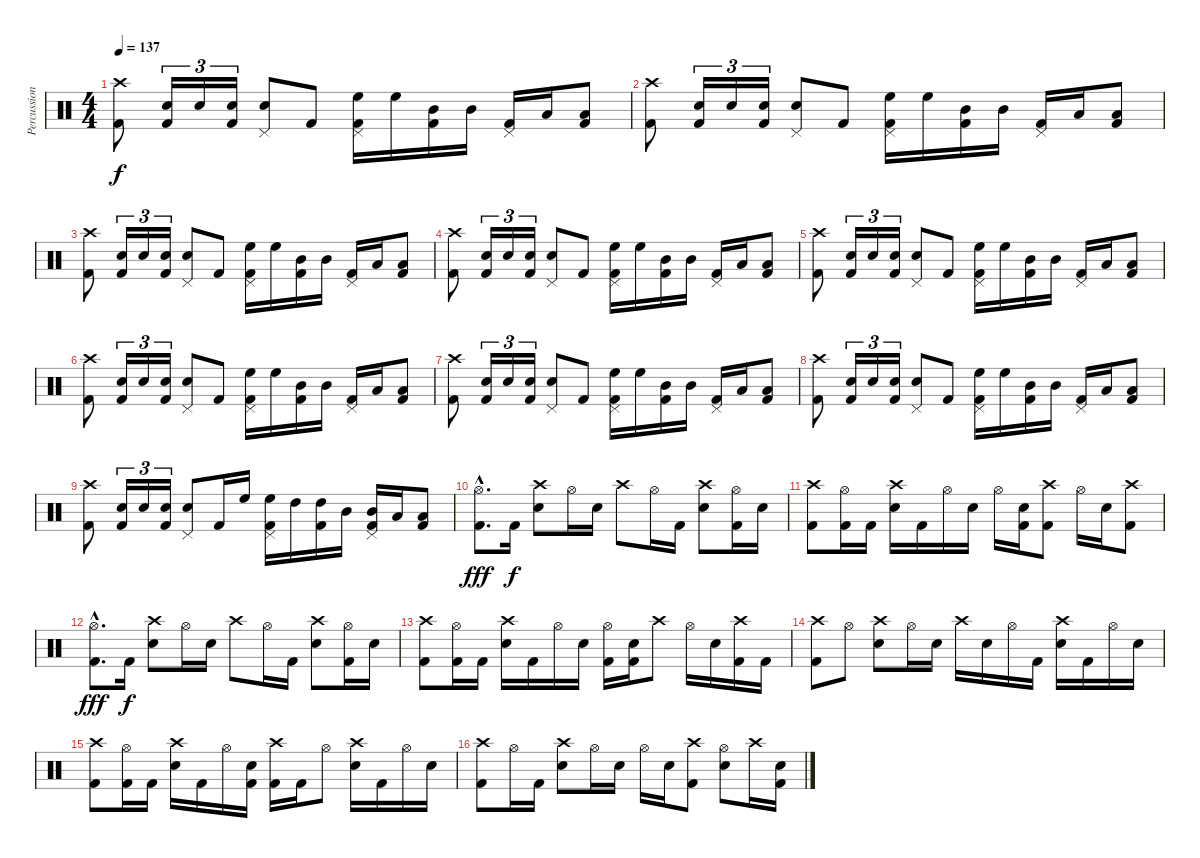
\track ("Percussion" "Percussion") {instrument percussion}
\staff {score}
\articulation defaults
\ts (4 4)
\tempo 137
\clef neutral
\ks c
("Kick (hit) 2" "Crash high (hit)").8{dy f} ("Kick (hit) 2" "Snare (hit) 2").16{tu (3 2)} "Snare (hit) 2".16{tu (3 2)} ("Kick (hit) 2" "Snare (hit) 2").16{tu (3 2)} ("Snare (hit) 2" "Pedal Hi-Hat (hit)").8 "Kick (hit) 2".8 ("Kick (hit) 2" "High Floor Tom (hit)" "Pedal Hi-Hat (hit)").16 "High Floor Tom (hit)".16 ("Kick (hit) 2" "Mid Tom (hit)").16 "Mid Tom (hit)".16 ("Kick (hit) 2" "Pedal Hi-Hat (hit)").16 "Low Tom (hit)".16 ("Kick (hit) 2" "Low Tom (hit)").8 |
("Kick (hit) 2" "Crash high (hit)").8 ("Kick (hit) 2" "Snare (hit) 2").16{tu (3 2)} "Snare (hit) 2".16{tu (3 2)} ("Kick (hit) 2" "Snare (hit) 2").16{tu (3 2)} ("Snare (hit) 2" "Pedal Hi-Hat (hit)").8 "Kick (hit) 2".8 ("Kick (hit) 2" "High Floor Tom (hit)" "Pedal Hi-Hat (hit)").16 "High Floor Tom (hit)".16 ("Kick (hit) 2" "Mid Tom (hit)").16 "Mid Tom (hit)".16 ("Kick (hit) 2" "Pedal Hi-Hat (hit)").16 "Low Tom (hit)".16 ("Kick (hit) 2" "Low Tom (hit)").8 |
("Kick (hit) 2" "Crash high (hit)").8 ("Kick (hit) 2" "Snare (hit) 2").16{tu (3 2)} "Snare (hit) 2".16{tu (3 2)} ("Kick (hit) 2" "Snare (hit) 2").16{tu (3 2)} ("Snare (hit) 2" "Pedal Hi-Hat (hit)").8 "Kick (hit) 2".8 ("Kick (hit) 2" "High Floor Tom (hit)" "Pedal Hi-Hat (hit)").16 "High Floor Tom (hit)".16 ("Kick (hit) 2" "Mid Tom (hit)").16 "Mid Tom (hit)".16 ("Kick (hit) 2" "Pedal Hi-Hat (hit)").16 "Low Tom (hit)".16 ("Kick (hit) 2" "Low Tom (hit)").8 |
("Kick (hit) 2" "Crash high (hit)").8 ("Kick (hit) 2" "Snare (hit) 2").16{tu (3 2)} "Snare (hit) 2".16{tu (3 2)} ("Kick (hit) 2" "Snare (hit) 2").16{tu (3 2)} ("Snare (hit) 2" "Pedal Hi-Hat (hit)").8 "Kick (hit) 2".8 ("Kick (hit) 2" "High Floor Tom (hit)" "Pedal Hi-Hat (hit)").16 "High Floor Tom (hit)".16 ("Kick (hit) 2" "Mid Tom (hit)").16 "Mid Tom (hit)".16 ("Kick (hit) 2" "Pedal Hi-Hat (hit)").16 "Low Tom (hit)".16 ("Kick (hit) 2" "Low Tom (hit)").8 |
("Kick (hit) 2" "Crash high (hit)").8 ("Kick (hit) 2" "Snare (hit) 2").16{tu (3 2)} "Snare (hit) 2".16{tu (3 2)} ("Kick (hit) 2" "Snare (hit) 2").16{tu (3 2)} ("Snare (hit) 2" "Pedal Hi-Hat (hit)").8 "Kick (hit) 2".8 ("Kick (hit) 2" "High Floor Tom (hit)" "Pedal Hi-Hat (hit)").16 "High Floor Tom (hit)".16 ("Kick (hit) 2" "Mid Tom (hit)").16 "Mid Tom (hit)".16 ("Kick (hit) 2" "Pedal Hi-Hat (hit)").16 "Low Tom (hit)".16 ("Kick (hit) 2" "Low Tom (hit)").8 |
("Kick (hit) 2" "Crash high (hit)").8 ("Kick (hit) 2" "Snare (hit) 2").16{tu (3 2)} "Snare (hit) 2".16{tu (3 2)} ("Kick (hit) 2" "Snare (hit) 2").16{tu (3 2)} ("Snare (hit) 2" "Pedal Hi-Hat (hit)").8 "Kick (hit) 2".8 ("Kick (hit) 2" "High Floor Tom (hit)" "Pedal Hi-Hat (hit)").16 "High Floor Tom (hit)".16 ("Kick (hit) 2" "Mid Tom (hit)").16 "Mid Tom (hit)".16 ("Kick (hit) 2" "Pedal Hi-Hat (hit)").16 "Low Tom (hit)".16 ("Kick (hit) 2" "Low Tom (hit)").8 |
("Kick (hit) 2" "Crash high (hit)").8 ("Kick (hit) 2" "Snare (hit) 2").16{tu (3 2)} "Snare (hit) 2".16{tu (3 2)} ("Kick (hit) 2" "Snare (hit) 2").16{tu (3 2)} ("Snare (hit) 2" "Pedal Hi-Hat (hit)").8 "Kick (hit) 2".8 ("Kick (hit) 2" "High Floor Tom (hit)" "Pedal Hi-Hat (hit)").16 "High Floor Tom (hit)".16 ("Kick (hit) 2" "Mid Tom (hit)").16 "Mid Tom (hit)".16 ("Kick (hit) 2" "Pedal Hi-Hat (hit)").16 "Low Tom (hit)".16 ("Kick (hit) 2" "Low Tom (hit)").8 |
("Kick (hit) 2" "Crash high (hit)").8 ("Kick (hit) 2" "Snare (hit) 2").16{tu (3 2)} "Snare (hit) 2".16{tu (3 2)} ("Kick (hit) 2" "Snare (hit) 2").16{tu (3 2)} ("Snare (hit) 2" "Pedal Hi-Hat (hit)").8 "Kick (hit) 2".8 ("Kick (hit) 2" "High Floor Tom (hit)" "Pedal Hi-Hat (hit)").16 "High Floor Tom (hit)".16 ("Kick (hit) 2" "Mid Tom (hit)").16 "Mid Tom (hit)".16 ("Kick (hit) 2" "Pedal Hi-Hat (hit)").16 "Low Tom (hit)".16 ("Kick (hit) 2" "Low Tom (hit)").8 |
("Kick (hit) 2" "Crash high (hit)").8 ("Kick (hit) 2" "Snare (hit) 2").16{tu (3 2)} "Snare (hit) 2".16{tu (3 2)} ("Kick (hit) 2" "Snare (hit) 2").16{tu (3 2)} ("Snare (hit) 2" "Pedal Hi-Hat (hit)").8 "Kick (hit) 2".16 "High Floor Tom (hit)".16 ("Kick (hit) 2" "High Floor Tom (hit)" "Pedal Hi-Hat (hit)").16 "High Tom (hit)".16 ("Kick (hit) 2" "High Tom (hit)").16 "Mid Tom (hit)".16 ("Kick (hit) 2" "Mid Tom (hit)" "Pedal Hi-Hat (hit)").16 "Low Tom (hit)".16 ("Kick (hit) 2" "Low Tom (hit)").8 |
("Kick (hit) 2"{hac} "Hi-Hat (open)"{hac}).8{d dy fff} "Kick (hit) 2".16{dy f} ("Snare (hit) 2" "Crash high (hit)").8 "Hi-Hat (open)".16 "Snare (hit) 2".16 "Crash high (hit)".8 "Hi-Hat (open)".16 "Kick (hit) 2".16 ("Snare (hit) 2" "Crash high (hit)").8 ("Kick (hit) 2" "Hi-Hat (open)").16 "Snare (hit) 2".16 |
("Kick (hit) 2" "Crash high (hit)").8 ("Kick (hit) 2" "Hi-Hat (open)").16 "Kick (hit) 2".16 ("Snare (hit) 2" "Crash high (hit)").16 "Kick (hit) 2".16 "Hi-Hat (open)".16 "Snare (hit) 2".16 "Hi-Hat (open)".16 ("Kick (hit) 2" "Snare (hit) 2").16 ("Kick (hit) 2" "Crash high (hit)").8 "Hi-Hat (open)".16 "Snare (hit) 2".16 ("Kick (hit) 2" "Crash high (hit)").8 |
("Kick (hit) 2"{hac} "Hi-Hat (open)"{hac}).8{d dy fff} "Kick (hit) 2".16{dy f} ("Snare (hit) 2" "Crash high (hit)").8 "Hi-Hat (open)".16 "Snare (hit) 2".16 "Crash high (hit)".8 "Hi-Hat (open)".16 "Kick (hit) 2".16 ("Snare (hit) 2" "Crash high (hit)").8 ("Kick (hit) 2" "Hi-Hat (open)").16 "Snare (hit) 2".16 |
("Kick (hit) 2" "Crash high (hit)").8 ("Kick (hit) 2" "Hi-Hat (open)").16 "Kick (hit) 2".16 ("Snare (hit) 2" "Crash high (hit)").16 "Kick (hit) 2".16 "Hi-Hat (open)".16 "Snare (hit) 2".16 ("Kick (hit) 2" "Hi-Hat (open)").16 ("Kick (hit) 2" "Snare (hit) 2").16 "Crash high (hit)".8 "Hi-Hat (open)".16 "Snare (hit) 2".16 ("Kick (hit) 2" "Crash high (hit)").16 "Kick (hit) 2".16 |
("Kick (hit) 2" "Crash high (hit)").8 "Hi-Hat (open)".8 ("Snare (hit) 2" "Crash high (hit)").8 "Hi-Hat (open)".16 "Snare (hit) 2".16 "Crash high (hit)".16 "Snare (hit) 2".16 "Hi-Hat (open)".16 "Kick (hit) 2".16 ("Snare (hit) 2" "Crash high (hit)").16 "Kick (hit) 2".16 "Hi-Hat (open)".16 "Snare (hit) 2".16 |
("Kick (hit) 2" "Crash high (hit)").8 ("Kick (hit) 2" "Hi-Hat (open)").16 "Kick (hit) 2".16 ("Snare (hit) 2" "Crash high (hit)").16 "Kick (hit) 2".16 "Hi-Hat (open)".16 ("Kick (hit) 2" "Snare (hit) 2").16 ("Kick (hit) 2" "Crash high (hit)").16 "Kick (hit) 2".16 "Hi-Hat (open)".8 ("Snare (hit) 2" "Crash high (hit)").16 "Kick (hit) 2".16 "Hi-Hat (open)".16 "Snare (hit) 2".16 |
("Kick (hit) 2" "Crash high (hit)").8 "Hi-Hat (open)".16 "Kick (hit) 2".16 ("Snare (hit) 2" "Crash high (hit)").8 "Hi-Hat (open)".16 "Snare (hit) 2".16 "Hi-Hat (open)".16 "Snare (hit) 2".16 ("Kick (hit) 2" "Crash high (hit)").8 ("Snare (hit) 2" "Hi-Hat (open)").8 "Crash high (hit)".16 ("Kick (hit) 2" "Snare (hit) 2").16
